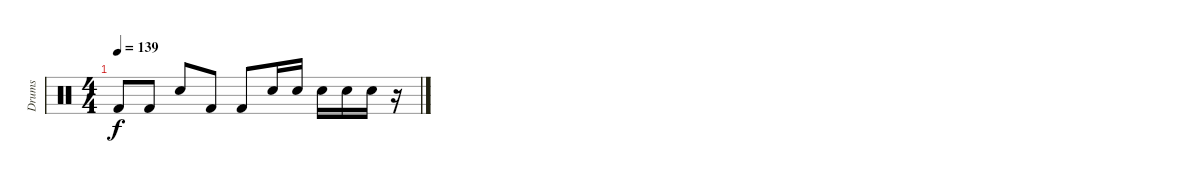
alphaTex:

\track ("Drums" "Drums") {instrument percussion}
\staff {score}
\articulation defaults
\ts (4 4)
\tempo 139
\clef neutral
\ks c "Kick (hit) 2".8{dy f} "Kick (hit) 2".8 "Snare (hit) 2".8 "Kick (hit) 2".8 "Kick (hit) 2".8 "Snare (hit) 2".16 "Snare (hit) 2".16 "Snare (hit) 2".16 "Snare (hit) 2".16 "Snare (hit) 2".16
r.16
